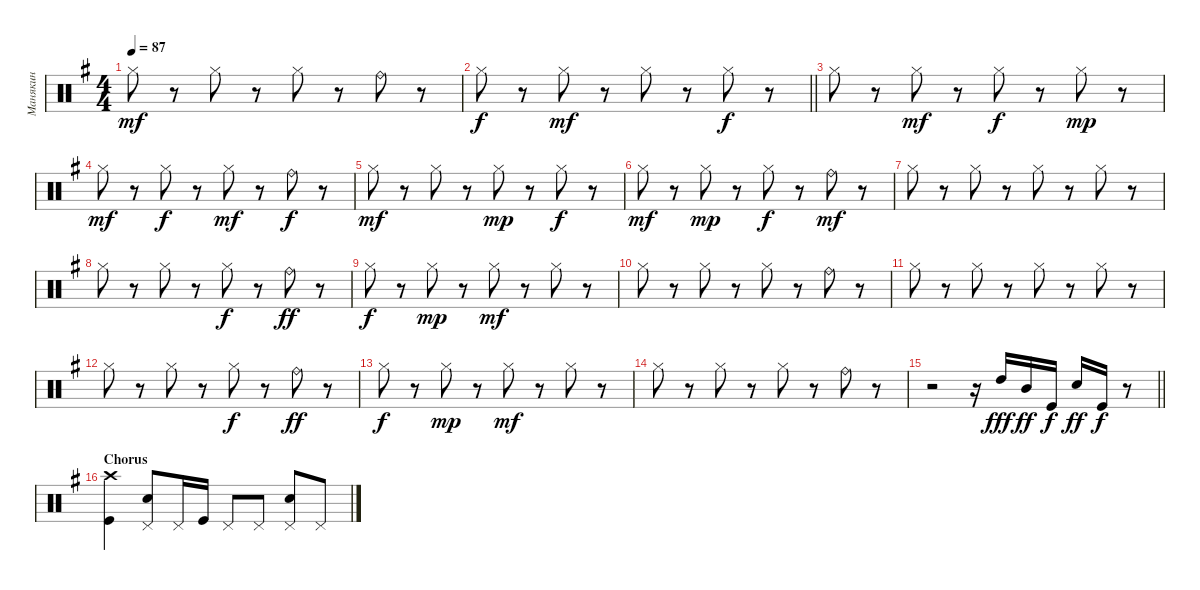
\track ("Манякин" "Манякин") {instrument percussion}
\staff {score}
\articulation defaults
\ts (4 4)
\tempo 87
\clef neutral
\ks g "Hi-Hat (closed)".8{dy mf}
r.8 "Hi-Hat (closed)".8 r.8 "Hi-Hat (closed)".8 r.8 "Ride (bell)".8 r.8 |
\barLineRight lightlight "Hi-Hat (closed)".8{dy f}
r.8 "Hi-Hat (closed)".8{dy mf} r.8 "Hi-Hat (closed)".8 r.8 "Hi-Hat (closed)".8{dy f} r.8 |
"Hi-Hat (closed)".8 r.8 "Hi-Hat (closed)".8{dy mf} r.8 "Hi-Hat (closed)".8{dy f} r.8 "Hi-Hat (closed)".8{dy mp} r.8 |
"Hi-Hat (closed)".8{dy mf} r.8 "Hi-Hat (closed)".8{dy f} r.8 "Hi-Hat (closed)".8{dy mf} r.8 "Ride (bell)".8{dy f} r.8 |
"Hi-Hat (closed)".8{dy mf} r.8 "Hi-Hat (closed)".8 r.8 "Hi-Hat (closed)".8{dy mp} r.8 "Hi-Hat (closed)".8{dy f} r.8 |
"Hi-Hat (closed)".8{dy mf} r.8 "Hi-Hat (closed)".8{dy mp} r.8 "Hi-Hat (closed)".8{dy f} r.8 "Ride (bell)".8{dy mf} r.8 |
"Hi-Hat (closed)".8 r.8 "Hi-Hat (closed)".8 r.8 "Hi-Hat (closed)".8 r.8 "Hi-Hat (closed)".8 r.8 |
"Hi-Hat (closed)".8 r.8 "Hi-Hat (closed)".8 r.8 "Hi-Hat (closed)".8{dy f} r.8 "Ride (bell)".8{dy ff} r.8 |
"Hi-Hat (closed)".8{dy f} r.8 "Hi-Hat (closed)".8{dy mp} r.8 "Hi-Hat (closed)".8{dy mf} r.8 "Hi-Hat (closed)".8 r.8 |
"Hi-Hat (closed)".8 r.8 "Hi-Hat (closed)".8 r.8 "Hi-Hat (closed)".8 r.8 "Ride (bell)".8 r.8 |
"Hi-Hat (closed)".8 r.8 "Hi-Hat (closed)".8 r.8 "Hi-Hat (closed)".8 r.8 "Hi-Hat (closed)".8 r.8 |
"Hi-Hat (closed)".8 r.8 "Hi-Hat (closed)".8 r.8 "Hi-Hat (closed)".8{dy f} r.8 "Ride (bell)".8{dy ff} r.8 |
"Hi-Hat (closed)".8{dy f} r.8 "Hi-Hat (closed)".8{dy mp} r.8 "Hi-Hat (closed)".8{dy mf} r.8 "Hi-Hat (closed)".8 r.8 |
"Hi-Hat (closed)".8 r.8 "Hi-Hat (closed)".8 r.8 "Hi-Hat (closed)".8 r.8 "Ride (bell)".8 r.8 |
\barLineRight lightlight
r.2 r.16 "High Tom (hit)".16{dy fff} "Mid Tom (hit)".16{dy ff} "Kick (hit)".16{dy f} "Electric Snare (hit)".16{dy ff} "Kick (hit)".16{dy f} r.8 |
\section ("" "Chorus")
("Kick (hit)" "Crash high (hit)").4 ("Electric Snare (hit)" "Pedal Hi-Hat (hit)").8 "Pedal Hi-Hat (hit)".16 "Kick (hit)".16 "Pedal Hi-Hat (hit)".8 "Pedal Hi-Hat (hit)".8 ("Electric Snare (hit)" "Pedal Hi-Hat (hit)").8 "Pedal Hi-Hat (hit)".8
